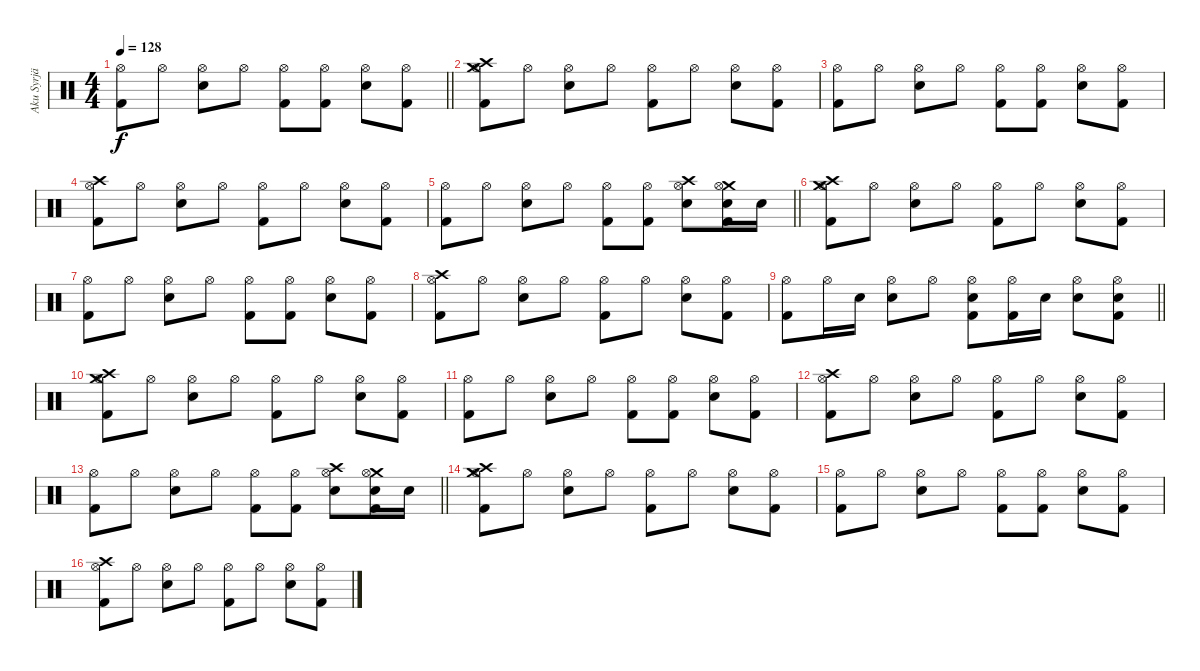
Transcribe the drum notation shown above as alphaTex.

\track ("Aku Syrjä" "Aku Syrjä") {instrument percussion}
\staff {score}
\articulation defaults
\ts (4 4)
\tempo 128
\clef neutral
\barLineRight lightlight
\ks c
("Hi-Hat (open)" "Kick (hit) 2").8{dy f} "Hi-Hat (open)".8 ("Hi-Hat (open)" "Electric Snare (hit)").8 "Hi-Hat (open)".8 ("Hi-Hat (open)" "Kick (hit) 2").8 ("Hi-Hat (open)" "Kick (hit) 2").8 ("Hi-Hat (open)" "Electric Snare (hit)").8 ("Hi-Hat (open)" "Kick (hit) 2").8 |
("Crash high (hit)" "Crash medium (hit)" "Hi-Hat (open)" "Kick (hit) 2").8 "Hi-Hat (open)".8 ("Hi-Hat (open)" "Electric Snare (hit)").8 "Hi-Hat (open)".8 ("Hi-Hat (open)" "Kick (hit) 2").8 "Hi-Hat (open)".8 ("Hi-Hat (open)" "Electric Snare (hit)").8 ("Hi-Hat (open)" "Kick (hit) 2").8 |
("Hi-Hat (open)" "Kick (hit) 2").8 "Hi-Hat (open)".8 ("Hi-Hat (open)" "Electric Snare (hit)").8 "Hi-Hat (open)".8 ("Hi-Hat (open)" "Kick (hit) 2").8 ("Hi-Hat (open)" "Kick (hit) 2").8 ("Hi-Hat (open)" "Electric Snare (hit)").8 ("Hi-Hat (open)" "Kick (hit) 2").8 |
("Crash high (hit)" "Hi-Hat (open)" "Kick (hit) 2").8 "Hi-Hat (open)".8 ("Hi-Hat (open)" "Electric Snare (hit)").8 "Hi-Hat (open)".8 ("Hi-Hat (open)" "Kick (hit) 2").8 "Hi-Hat (open)".8 ("Hi-Hat (open)" "Electric Snare (hit)").8 ("Hi-Hat (open)" "Kick (hit) 2").8 |
\barLineRight lightlight
("Hi-Hat (open)" "Kick (hit) 2").8 "Hi-Hat (open)".8 ("Hi-Hat (open)" "Electric Snare (hit)").8 "Hi-Hat (open)".8 ("Hi-Hat (open)" "Kick (hit) 2").8 ("Hi-Hat (open)" "Kick (hit) 2").8 ("Crash high (hit)" "Hi-Hat (open)" "Electric Snare (hit)").8 ("Crash medium (hit)" "Hi-Hat (open)" "Electric Snare (hit)" "Kick (hit) 2").16 "Electric Snare (hit)".16 |
("Crash high (hit)" "Crash medium (hit)" "Hi-Hat (open)" "Kick (hit) 2").8 "Hi-Hat (open)".8 ("Hi-Hat (open)" "Electric Snare (hit)").8 "Hi-Hat (open)".8 ("Hi-Hat (open)" "Kick (hit) 2").8 "Hi-Hat (open)".8 ("Hi-Hat (open)" "Electric Snare (hit)").8 ("Hi-Hat (open)" "Kick (hit) 2").8 |
("Hi-Hat (open)" "Kick (hit) 2").8 "Hi-Hat (open)".8 ("Hi-Hat (open)" "Electric Snare (hit)").8 "Hi-Hat (open)".8 ("Hi-Hat (open)" "Kick (hit) 2").8 ("Hi-Hat (open)" "Kick (hit) 2").8 ("Hi-Hat (open)" "Electric Snare (hit)").8 ("Hi-Hat (open)" "Kick (hit) 2").8 |
("Crash high (hit)" "Hi-Hat (open)" "Kick (hit) 2").8 "Hi-Hat (open)".8 ("Hi-Hat (open)" "Electric Snare (hit)").8 "Hi-Hat (open)".8 ("Hi-Hat (open)" "Kick (hit) 2").8 "Hi-Hat (open)".8 ("Hi-Hat (open)" "Electric Snare (hit)").8 ("Hi-Hat (open)" "Kick (hit) 2").8 |
\barLineRight lightlight
("Hi-Hat (open)" "Kick (hit) 2").8 "Hi-Hat (open)".16 "Electric Snare (hit)".16 ("Hi-Hat (open)" "Electric Snare (hit)").8 "Hi-Hat (open)".8 ("Hi-Hat (open)" "Electric Snare (hit)" "Kick (hit) 2").8 ("Hi-Hat (open)" "Kick (hit) 2").16 "Electric Snare (hit)".16 ("Hi-Hat (open)" "Electric Snare (hit)").8 ("Hi-Hat (open)" "Electric Snare (hit)" "Kick (hit) 2").8 |
("Crash high (hit)" "Crash medium (hit)" "Hi-Hat (open)" "Kick (hit) 2").8 "Hi-Hat (open)".8 ("Hi-Hat (open)" "Electric Snare (hit)").8 "Hi-Hat (open)".8 ("Hi-Hat (open)" "Kick (hit) 2").8 "Hi-Hat (open)".8 ("Hi-Hat (open)" "Electric Snare (hit)").8 ("Hi-Hat (open)" "Kick (hit) 2").8 |
("Hi-Hat (open)" "Kick (hit) 2").8 "Hi-Hat (open)".8 ("Hi-Hat (open)" "Electric Snare (hit)").8 "Hi-Hat (open)".8 ("Hi-Hat (open)" "Kick (hit) 2").8 ("Hi-Hat (open)" "Kick (hit) 2").8 ("Hi-Hat (open)" "Electric Snare (hit)").8 ("Hi-Hat (open)" "Kick (hit) 2").8 |
("Crash high (hit)" "Hi-Hat (open)" "Kick (hit) 2").8 "Hi-Hat (open)".8 ("Hi-Hat (open)" "Electric Snare (hit)").8 "Hi-Hat (open)".8 ("Hi-Hat (open)" "Kick (hit) 2").8 "Hi-Hat (open)".8 ("Hi-Hat (open)" "Electric Snare (hit)").8 ("Hi-Hat (open)" "Kick (hit) 2").8 |
\barLineRight lightlight
("Hi-Hat (open)" "Kick (hit) 2").8 "Hi-Hat (open)".8 ("Hi-Hat (open)" "Electric Snare (hit)").8 "Hi-Hat (open)".8 ("Hi-Hat (open)" "Kick (hit) 2").8 ("Hi-Hat (open)" "Kick (hit) 2").8 ("Crash high (hit)" "Hi-Hat (open)" "Electric Snare (hit)").8 ("Crash medium (hit)" "Hi-Hat (open)" "Electric Snare (hit)" "Kick (hit) 2").16 "Electric Snare (hit)".16 |
("Crash high (hit)" "Crash medium (hit)" "Hi-Hat (open)" "Kick (hit) 2").8 "Hi-Hat (open)".8 ("Hi-Hat (open)" "Electric Snare (hit)").8 "Hi-Hat (open)".8 ("Hi-Hat (open)" "Kick (hit) 2").8 "Hi-Hat (open)".8 ("Hi-Hat (open)" "Electric Snare (hit)").8 ("Hi-Hat (open)" "Kick (hit) 2").8 |
("Hi-Hat (open)" "Kick (hit) 2").8 "Hi-Hat (open)".8 ("Hi-Hat (open)" "Electric Snare (hit)").8 "Hi-Hat (open)".8 ("Hi-Hat (open)" "Kick (hit) 2").8 ("Hi-Hat (open)" "Kick (hit) 2").8 ("Hi-Hat (open)" "Electric Snare (hit)").8 ("Hi-Hat (open)" "Kick (hit) 2").8 |
("Crash high (hit)" "Hi-Hat (open)" "Kick (hit) 2").8 "Hi-Hat (open)".8 ("Hi-Hat (open)" "Electric Snare (hit)").8 "Hi-Hat (open)".8 ("Hi-Hat (open)" "Kick (hit) 2").8 "Hi-Hat (open)".8 ("Hi-Hat (open)" "Electric Snare (hit)").8 ("Hi-Hat (open)" "Kick (hit) 2").8
